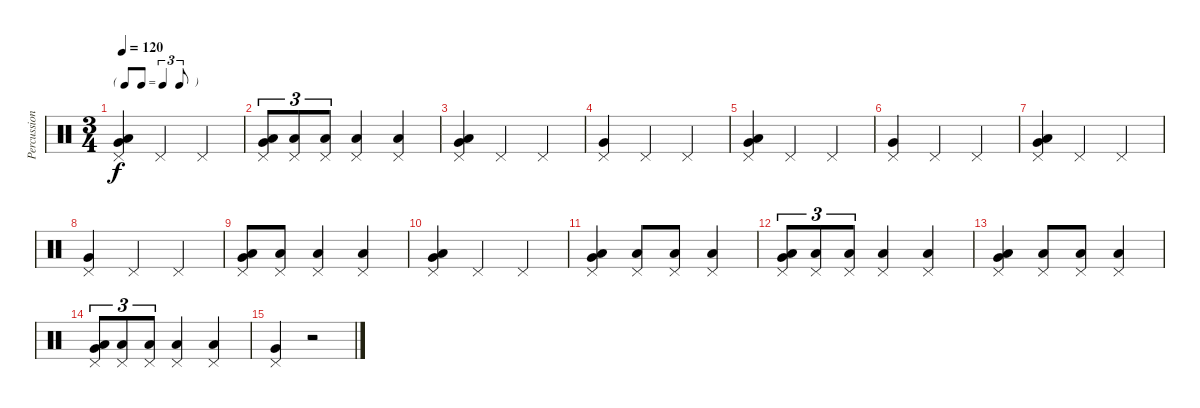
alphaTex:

\track ("Percussions" "Percussion") {instrument percussion}
\staff {score}
\articulation defaults
\ts (3 4)
\tf triplet8th
\tempo 120
\clef neutral
\ks c
("Pedal Hi-Hat (hit)" "Low Tom (hit)" "Very Low Tom (hit)").4{dy f} "Pedal Hi-Hat (hit)".4 "Pedal Hi-Hat (hit)".4 |
("Pedal Hi-Hat (hit)" "Low Tom (hit)" "Very Low Tom (hit)").8{tu (3 2)} ("Pedal Hi-Hat (hit)" "Low Tom (hit)").8{tu (3 2)} ("Pedal Hi-Hat (hit)" "Low Tom (hit)").8{tu (3 2)} ("Pedal Hi-Hat (hit)" "Low Tom (hit)").4 ("Pedal Hi-Hat (hit)" "Low Tom (hit)").4 |
("Pedal Hi-Hat (hit)" "Low Tom (hit)" "Very Low Tom (hit)").4 "Pedal Hi-Hat (hit)".4 "Pedal Hi-Hat (hit)".4 |
("Pedal Hi-Hat (hit)" "Very Low Tom (hit)").4 "Pedal Hi-Hat (hit)".4 "Pedal Hi-Hat (hit)".4 |
("Pedal Hi-Hat (hit)" "Low Tom (hit)" "Very Low Tom (hit)").4 "Pedal Hi-Hat (hit)".4 "Pedal Hi-Hat (hit)".4 |
("Pedal Hi-Hat (hit)" "Very Low Tom (hit)").4 "Pedal Hi-Hat (hit)".4 "Pedal Hi-Hat (hit)".4 |
("Pedal Hi-Hat (hit)" "Low Tom (hit)" "Very Low Tom (hit)").4 "Pedal Hi-Hat (hit)".4 "Pedal Hi-Hat (hit)".4 |
("Pedal Hi-Hat (hit)" "Very Low Tom (hit)").4 "Pedal Hi-Hat (hit)".4 "Pedal Hi-Hat (hit)".4 |
("Pedal Hi-Hat (hit)" "Low Tom (hit)" "Very Low Tom (hit)").8 ("Pedal Hi-Hat (hit)" "Low Tom (hit)").8 ("Pedal Hi-Hat (hit)" "Low Tom (hit)").4 ("Pedal Hi-Hat (hit)" "Low Tom (hit)").4 |
("Pedal Hi-Hat (hit)" "Low Tom (hit)" "Very Low Tom (hit)").4 "Pedal Hi-Hat (hit)".4 "Pedal Hi-Hat (hit)".4 |
("Pedal Hi-Hat (hit)" "Low Tom (hit)" "Very Low Tom (hit)").4 ("Pedal Hi-Hat (hit)" "Low Tom (hit)").8 ("Pedal Hi-Hat (hit)" "Low Tom (hit)").8 ("Pedal Hi-Hat (hit)" "Low Tom (hit)").4 |
("Pedal Hi-Hat (hit)" "Low Tom (hit)" "Very Low Tom (hit)").8{tu (3 2)} ("Pedal Hi-Hat (hit)" "Low Tom (hit)").8{tu (3 2)} ("Pedal Hi-Hat (hit)" "Low Tom (hit)").8{tu (3 2)} ("Pedal Hi-Hat (hit)" "Low Tom (hit)").4 ("Pedal Hi-Hat (hit)" "Low Tom (hit)").4 |
("Pedal Hi-Hat (hit)" "Low Tom (hit)" "Very Low Tom (hit)").4 ("Pedal Hi-Hat (hit)" "Low Tom (hit)").8 ("Pedal Hi-Hat (hit)" "Low Tom (hit)").8 ("Pedal Hi-Hat (hit)" "Low Tom (hit)").4 |
("Pedal Hi-Hat (hit)" "Low Tom (hit)" "Very Low Tom (hit)").8{tu (3 2)} ("Pedal Hi-Hat (hit)" "Low Tom (hit)").8{tu (3 2)} ("Pedal Hi-Hat (hit)" "Low Tom (hit)").8{tu (3 2)} ("Pedal Hi-Hat (hit)" "Low Tom (hit)").4 ("Pedal Hi-Hat (hit)" "Low Tom (hit)").4 |
("Pedal Hi-Hat (hit)" "Very Low Tom (hit)").4 r.2
